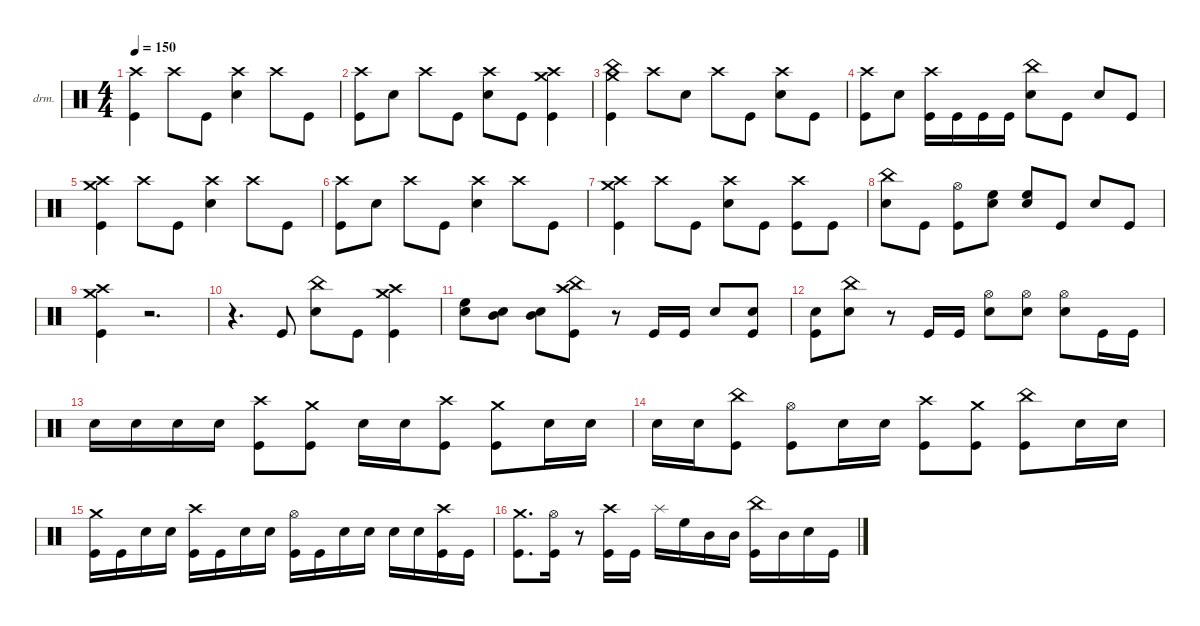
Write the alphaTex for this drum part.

\defaultSystemsLayout 4
\hideDynamics
\bracketExtendMode nobrackets
\firstSystemTrackNameOrientation horizontal
\track ("Drumkit" "drm.") {instrument percussion}
\staff {score}
\articulation defaults
\ts (4 4)
\tempo 150
\clef neutral
\ks c
("Kick (hit)" "Crash high (hit)"{acc #}).4{dy fff} "Crash high (hit)"{acc #}.8{dy ff} "Kick (hit)".8{dy fff} ("Snare (hit) 2" "Crash high (hit)"{acc #}).4 "Crash high (hit)"{acc #}.8{dy ff} "Kick (hit)".8{dy fff} |
("Kick (hit)" "Crash high (hit)"{acc #}).8 "Snare (hit) 2".8 "Crash high (hit)"{acc #}.8{dy ff} "Kick (hit)".8{dy fff} ("Snare (hit) 2" "Crash high (hit)"{acc #}).8 "Kick (hit)".8 ("Kick (hit)" "Crash high (hit)"{acc #} "Crash medium (hit)").4 |
("Kick (hit)" "China (hit)" "Crash medium (hit)").4 "Crash high (hit)"{acc #}.8{dy ff} "Snare (hit) 2".8{dy fff} "Crash high (hit)"{acc #}.8{dy ff} "Kick (hit)".8{dy fff} ("Snare (hit) 2" "Crash high (hit)"{acc #}).8 "Kick (hit)".8 |
("Kick (hit)" "Crash high (hit)"{acc #}).8{dy ff} "Snare (hit) 2".8{dy fff} ("Kick (hit)" "Crash high (hit)"{acc #}).16 "Kick (hit)".16 "Kick (hit)".16 "Kick (hit)".16 ("Snare (hit) 2" "China (hit)").8 "Kick (hit)".8 "Snare (hit) 2".8{dy ff} "Kick (hit)".8{dy fff} |
("Kick (hit)" "Crash high (hit)"{acc #} "Crash medium (hit)").4{dy ff} "Crash high (hit)"{acc #}.8 "Kick (hit)".8{dy fff} ("Snare (hit) 2" "Crash high (hit)"{acc #}).4 "Crash high (hit)"{acc #}.8{dy ff} "Kick (hit)".8{dy fff} |
("Kick (hit)" "Crash high (hit)"{acc #}).8 "Snare (hit) 2".8{dy pp} "Crash high (hit)"{acc #}.8{dy ff} "Kick (hit)".8{dy fff} ("Snare (hit) 2" "Crash high (hit)"{acc #}).4 "Crash high (hit)"{acc #}.8{dy ff} "Kick (hit)".8{dy fff} |
("Kick (hit)" "Crash high (hit)"{acc #} "Crash medium (hit)").4{dy ff} "Crash high (hit)"{acc #}.8 "Kick (hit)".8{dy fff} ("Snare (hit) 2" "Crash high (hit)"{acc #}).8 "Kick (hit)".8 ("Kick (hit)" "Crash high (hit)"{acc #}).8 "Kick (hit)".8 |
("Snare (hit) 2" "China (hit)").8 "Kick (hit)".8 ("Kick (hit)" "Hi-Hat (open)"{acc #}).8 ("Snare (hit) 2" "High Floor Tom (hit)").8{dy ff} ("Snare (hit) 2" "High Floor Tom (hit)").8 "Kick (hit)".8{dy fff} "Snare (hit) 2".8 "Kick (hit)".8 |
("Kick (hit)" "Crash high (hit)"{acc #} "Crash medium (hit)").4 r.2{d} |
r.4{d} "Kick (hit)".8 ("Snare (hit) 2" "China (hit)").8 "Kick (hit)".8 ("Kick (hit)" "Crash high (hit)"{acc #} "Crash medium (hit)").4 |
("Snare (hit) 2" "High Floor Tom (hit)").8{dy ff} ("Snare (hit) 2" "Mid Tom (hit)").8 ("Snare (hit) 2" "Mid Tom (hit)").8 ("Kick (hit)" "Crash high (hit)"{acc #} "China (hit)").8 r.8 "Kick (hit)".16{dy fff} "Kick (hit)".16 "Snare (hit) 2".8{dy f} ("Kick (hit)" "Snare (hit) 2").8{dy fff} |
("Kick (hit)" "Snare (hit) 2").8 ("Snare (hit) 2" "China (hit)").8 r.8 "Kick (hit)".16 "Kick (hit)".16 ("Snare (hit) 2" "Hi-Hat (open)"{acc #}).8 ("Snare (hit) 2" "Hi-Hat (open)"{acc #}).8 ("Snare (hit) 2" "Hi-Hat (open)"{acc #}).8 "Kick (hit)".16 "Kick (hit)".16 |
"Snare (hit) 2".16{dy f} "Snare (hit) 2".16{dy fff} "Snare (hit) 2".16{dy ff} "Snare (hit) 2".16{dy fff} ("Kick (hit)" "Crash high (hit)"{acc #}).8 ("Kick (hit)" "Crash medium (hit)").8 "Snare (hit) 2".16{dy ff} "Snare (hit) 2".16{dy fff} ("Kick (hit)" "Crash high (hit)"{acc #}).8 ("Kick (hit)" "Crash medium (hit)").8 "Snare (hit) 2".16{dy ff} "Snare (hit) 2".16{dy fff} |
"Snare (hit) 2".16{dy ff} "Snare (hit) 2".16{dy fff} ("Kick (hit)" "China (hit)").8 ("Kick (hit)" "Hi-Hat (open)"{acc #}).8 "Snare (hit) 2".16 "Snare (hit) 2".16{dy f} ("Kick (hit)" "Crash high (hit)"{acc #}).8{dy fff} ("Kick (hit)" "Crash medium (hit)").8 ("Kick (hit)" "China (hit)").8 "Snare (hit) 2".16 "Snare (hit) 2".16{dy f} |
("Kick (hit)" "Crash medium (hit)").16{dy fff} "Kick (hit)".16 "Snare (hit) 2".16{dy f} "Snare (hit) 2".16{dy fff} ("Kick (hit)" "Crash high (hit)"{acc #}).16 "Kick (hit)".16 "Snare (hit) 2".16 "Snare (hit) 2".16 ("Kick (hit)" "Hi-Hat (open)"{acc #}).16 "Kick (hit)".16 "Snare (hit) 2".16 "Snare (hit) 2".16{dy ff} "Snare (hit) 2".16{dy fff} "Snare (hit) 2".16{dy ff} ("Kick (hit)" "Crash high (hit)"{acc #}).16 "Kick (hit)".16{dy fff} |
("Kick (hit)" "Crash medium (hit)").8{d} ("Kick (hit)" "Hi-Hat (open)"{acc #}).16 r.8 ("Kick (hit)" "Crash high (hit)"{acc #}).16 "Kick (hit)".16 "Splash (hit)".16{dy ff} "High Floor Tom (hit)".16 "Mid Tom (hit)".16 "Mid Tom (hit)".16 ("Kick (hit)" "China (hit)").16 "Mid Tom (hit)".16 "Snare (hit) 2".16 "Kick (hit)".16{dy fff}
